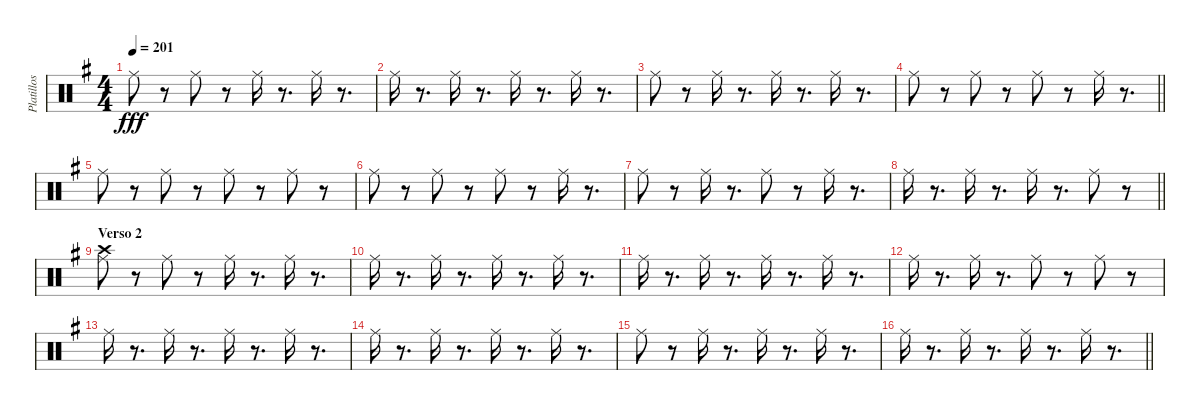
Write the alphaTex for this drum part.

\track ("Platillos y pandero" "Platillos ") {instrument percussion}
\staff {score}
\articulation defaults
\ts (4 4)
\tempo 201
\clef neutral
\ks g "Ride (middle)".8{dy fff}
r.8 "Ride (middle)".8 r.8 "Ride (middle)".16 r.8{d} "Ride (middle)".16 r.8{d} |
"Ride (middle)".16 r.8{d} "Ride (middle)".16 r.8{d} "Ride (middle)".16 r.8{d} "Ride (middle)".16 r.8{d} |
"Ride (middle)".8 r.8 "Ride (middle)".16 r.8{d} "Ride (middle)".16 r.8{d} "Ride (middle)".16 r.8{d} |
\barLineRight lightlight "Ride (middle)".8
r.8 "Ride (middle)".8 r.8 "Ride (middle)".8 r.8 "Ride (middle)".16 r.8{d} |
"Ride (middle)".8 r.8 "Ride (middle)".8 r.8 "Ride (middle)".8 r.8 "Ride (middle)".8 r.8 |
"Ride (middle)".8 r.8 "Ride (middle)".8 r.8 "Ride (middle)".8 r.8 "Ride (middle)".16 r.8{d} |
"Ride (middle)".8 r.8 "Ride (middle)".16 r.8{d} "Ride (middle)".8 r.8 "Ride (middle)".16 r.8{d} |
\barLineRight lightlight "Ride (middle)".16
r.8{d} "Ride (middle)".16 r.8{d} "Ride (middle)".16 r.8{d} "Ride (middle)".8 r.8 |
\section ("" "Verso 2")
("Ride (middle)" "Crash high (hit)").8 r.8 "Ride (middle)".8 r.8 "Ride (middle)".16 r.8{d} "Ride (middle)".16 r.8{d} |
"Ride (middle)".16 r.8{d} "Ride (middle)".16 r.8{d} "Ride (middle)".16 r.8{d} "Ride (middle)".16 r.8{d} |
"Ride (middle)".16 r.8{d} "Ride (middle)".16 r.8{d} "Ride (middle)".16 r.8{d} "Ride (middle)".16 r.8{d} |
"Ride (middle)".16 r.8{d} "Ride (middle)".16 r.8{d} "Ride (middle)".8 r.8 "Ride (middle)".8 r.8 |
"Ride (middle)".16 r.8{d} "Ride (middle)".16 r.8{d} "Ride (middle)".16 r.8{d} "Ride (middle)".16 r.8{d} |
"Ride (middle)".16 r.8{d} "Ride (middle)".16 r.8{d} "Ride (middle)".16 r.8{d} "Ride (middle)".16 r.8{d} |
"Ride (middle)".8 r.8 "Ride (middle)".16 r.8{d} "Ride (middle)".16 r.8{d} "Ride (middle)".16 r.8{d} |
\barLineRight lightlight "Ride (middle)".16
r.8{d} "Ride (middle)".16 r.8{d} "Ride (middle)".16 r.8{d} "Ride (middle)".16 r.8{d}
